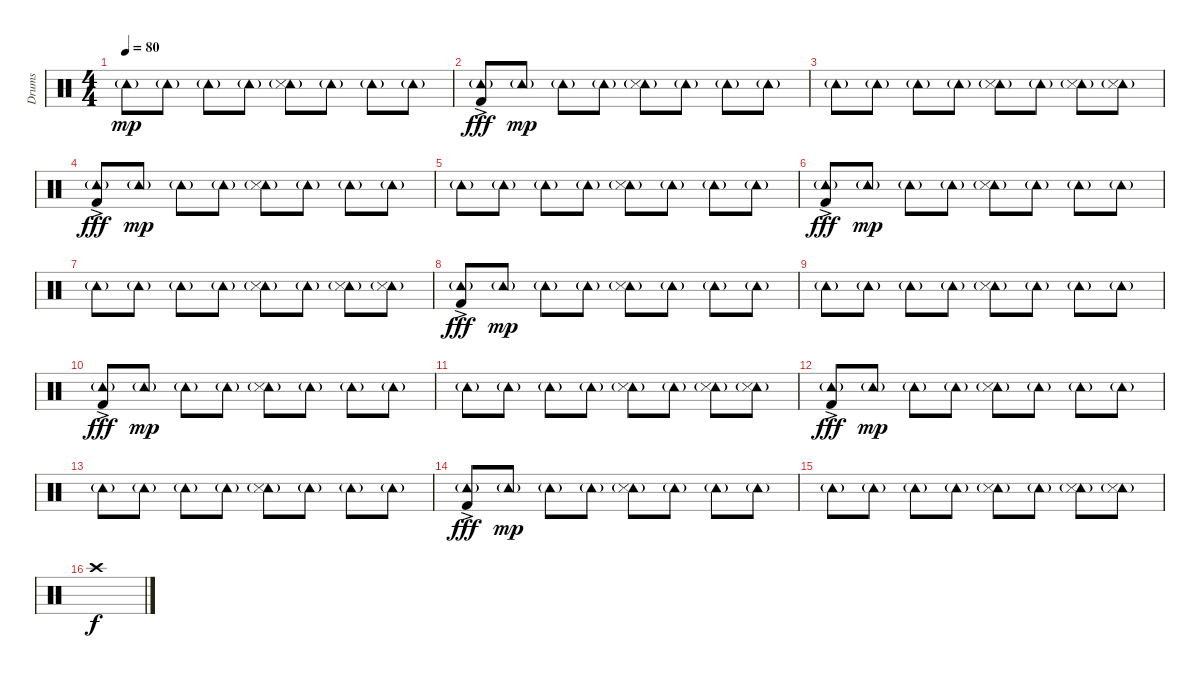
\track ("Drums" "Drums") {instrument percussion}
\staff {score}
\articulation defaults
\ts (4 4)
\tempo 80
\clef neutral
\ks c "Tambourine (hit)"{g}.8{dy mp} "Tambourine (hit)"{g}.8 "Tambourine (hit)"{g}.8 "Tambourine (hit)"{g}.8
("Tambourine (hit)"{g} "Snare (side stick) 3").8 "Tambourine (hit)"{g}.8 "Tambourine (hit)"{g}.8 "Tambourine (hit)"{g}.8 |
("Tambourine (hit)"{g} "Kick (hit) 2"{ac}).8{dy fff} "Tambourine (hit)"{g}.8{dy mp} "Tambourine (hit)"{g}.8 "Tambourine (hit)"{g}.8 ("Tambourine (hit)"{g} "Snare (side stick) 3").8 "Tambourine (hit)"{g}.8 "Tambourine (hit)"{g}.8 "Tambourine (hit)"{g}.8 |
"Tambourine (hit)"{g}.8 "Tambourine (hit)"{g}.8 "Tambourine (hit)"{g}.8 "Tambourine (hit)"{g}.8 ("Tambourine (hit)"{g} "Snare (side stick) 3").8 "Tambourine (hit)"{g}.8 ("Tambourine (hit)"{g} "Snare (side stick) 3").8 ("Tambourine (hit)"{g} "Snare (side stick) 3").8 |
("Tambourine (hit)"{g} "Kick (hit) 2"{ac}).8{dy fff} "Tambourine (hit)"{g}.8{dy mp} "Tambourine (hit)"{g}.8 "Tambourine (hit)"{g}.8 ("Tambourine (hit)"{g} "Snare (side stick) 3").8 "Tambourine (hit)"{g}.8 "Tambourine (hit)"{g}.8 "Tambourine (hit)"{g}.8 |
"Tambourine (hit)"{g}.8 "Tambourine (hit)"{g}.8 "Tambourine (hit)"{g}.8 "Tambourine (hit)"{g}.8 ("Tambourine (hit)"{g} "Snare (side stick) 3").8 "Tambourine (hit)"{g}.8 "Tambourine (hit)"{g}.8 "Tambourine (hit)"{g}.8 |
("Tambourine (hit)"{g} "Kick (hit) 2"{ac}).8{dy fff} "Tambourine (hit)"{g}.8{dy mp} "Tambourine (hit)"{g}.8 "Tambourine (hit)"{g}.8 ("Tambourine (hit)"{g} "Snare (side stick) 3").8 "Tambourine (hit)"{g}.8 "Tambourine (hit)"{g}.8 "Tambourine (hit)"{g}.8 |
"Tambourine (hit)"{g}.8 "Tambourine (hit)"{g}.8 "Tambourine (hit)"{g}.8 "Tambourine (hit)"{g}.8 ("Tambourine (hit)"{g} "Snare (side stick) 3").8 "Tambourine (hit)"{g}.8 ("Tambourine (hit)"{g} "Snare (side stick) 3").8 ("Tambourine (hit)"{g} "Snare (side stick) 3").8 |
("Tambourine (hit)"{g} "Kick (hit) 2"{ac}).8{dy fff} "Tambourine (hit)"{g}.8{dy mp} "Tambourine (hit)"{g}.8 "Tambourine (hit)"{g}.8 ("Tambourine (hit)"{g} "Snare (side stick) 3").8 "Tambourine (hit)"{g}.8 "Tambourine (hit)"{g}.8 "Tambourine (hit)"{g}.8 |
"Tambourine (hit)"{g}.8 "Tambourine (hit)"{g}.8 "Tambourine (hit)"{g}.8 "Tambourine (hit)"{g}.8 ("Tambourine (hit)"{g} "Snare (side stick) 3").8 "Tambourine (hit)"{g}.8 "Tambourine (hit)"{g}.8 "Tambourine (hit)"{g}.8 |
("Tambourine (hit)"{g} "Kick (hit) 2"{ac}).8{dy fff} "Tambourine (hit)"{g}.8{dy mp} "Tambourine (hit)"{g}.8 "Tambourine (hit)"{g}.8 ("Tambourine (hit)"{g} "Snare (side stick) 3").8 "Tambourine (hit)"{g}.8 "Tambourine (hit)"{g}.8 "Tambourine (hit)"{g}.8 |
"Tambourine (hit)"{g}.8 "Tambourine (hit)"{g}.8 "Tambourine (hit)"{g}.8 "Tambourine (hit)"{g}.8 ("Tambourine (hit)"{g} "Snare (side stick) 3").8 "Tambourine (hit)"{g}.8 ("Tambourine (hit)"{g} "Snare (side stick) 3").8 ("Tambourine (hit)"{g} "Snare (side stick) 3").8 |
("Tambourine (hit)"{g} "Kick (hit) 2"{ac}).8{dy fff} "Tambourine (hit)"{g}.8{dy mp} "Tambourine (hit)"{g}.8 "Tambourine (hit)"{g}.8 ("Tambourine (hit)"{g} "Snare (side stick) 3").8 "Tambourine (hit)"{g}.8 "Tambourine (hit)"{g}.8 "Tambourine (hit)"{g}.8 |
"Tambourine (hit)"{g}.8 "Tambourine (hit)"{g}.8 "Tambourine (hit)"{g}.8 "Tambourine (hit)"{g}.8 ("Tambourine (hit)"{g} "Snare (side stick) 3").8 "Tambourine (hit)"{g}.8 "Tambourine (hit)"{g}.8 "Tambourine (hit)"{g}.8 |
("Tambourine (hit)"{g} "Kick (hit) 2"{ac}).8{dy fff} "Tambourine (hit)"{g}.8{dy mp} "Tambourine (hit)"{g}.8 "Tambourine (hit)"{g}.8 ("Tambourine (hit)"{g} "Snare (side stick) 3").8 "Tambourine (hit)"{g}.8 "Tambourine (hit)"{g}.8 "Tambourine (hit)"{g}.8 |
"Tambourine (hit)"{g}.8 "Tambourine (hit)"{g}.8 "Tambourine (hit)"{g}.8 "Tambourine (hit)"{g}.8 ("Tambourine (hit)"{g} "Snare (side stick) 3").8 "Tambourine (hit)"{g}.8 ("Tambourine (hit)"{g} "Snare (side stick) 3").8 ("Tambourine (hit)"{g} "Snare (side stick) 3").8 |
"Crash high (hit)".1{dy f}
